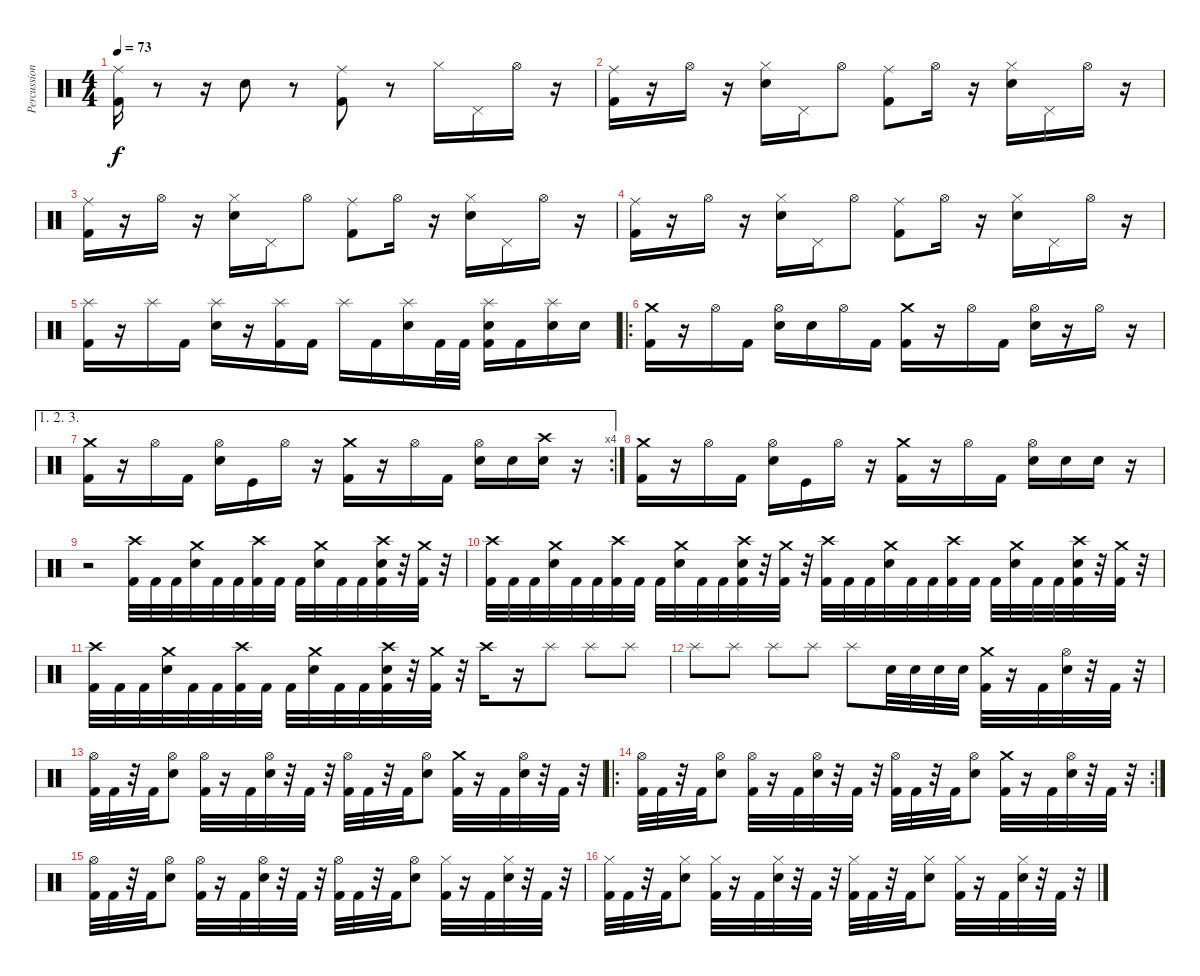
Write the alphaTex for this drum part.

\track ("Percussion" "Percussion") {instrument percussion}
\staff {score}
\articulation defaults
\ts (4 4)
\tempo 73
\clef neutral
\ks c
("Ride (middle)" "Kick (hit) 2").16{dy f} r.8 r.16 "Electric Snare (hit)".8 r.8 ("Ride (middle)" "Kick (hit) 2").8 r.8 "Hi-Hat (closed)".16 "Pedal Hi-Hat (hit)".16 "Hi-Hat (open)".16 r.16 |
("Ride (middle)" "Kick (hit) 2").16 r.16 "Hi-Hat (open)".16 r.16 ("Hi-Hat (closed)" "Electric Snare (hit)").16 "Pedal Hi-Hat (hit)".16 "Hi-Hat (open)".8 ("Ride (middle)" "Kick (hit) 2").8 "Hi-Hat (open)".16 r.16 ("Hi-Hat (closed)" "Electric Snare (hit)").16 "Pedal Hi-Hat (hit)".16 "Hi-Hat (open)".16 r.16 |
("Ride (middle)" "Kick (hit) 2").16 r.16 "Hi-Hat (open)".16 r.16 ("Hi-Hat (closed)" "Electric Snare (hit)").16 "Pedal Hi-Hat (hit)".16 "Hi-Hat (open)".8 ("Ride (middle)" "Kick (hit) 2").8 "Hi-Hat (open)".16 r.16 ("Hi-Hat (closed)" "Electric Snare (hit)").16 "Pedal Hi-Hat (hit)".16 "Hi-Hat (open)".16 r.16 |
("Ride (middle)" "Kick (hit) 2").16 r.16 "Hi-Hat (open)".16 r.16 ("Hi-Hat (closed)" "Electric Snare (hit)").16 "Pedal Hi-Hat (hit)".16 "Hi-Hat (open)".8 ("Ride (middle)" "Kick (hit) 2").8 "Hi-Hat (open)".16 r.16 ("Hi-Hat (closed)" "Electric Snare (hit)").16 "Pedal Hi-Hat (hit)".16 "Hi-Hat (open)".16 r.16 |
("Splash (hit)" "Kick (hit) 2").16 r.16 "Splash (hit)".16 "Kick (hit) 2".16 ("Splash (hit)" "Electric Snare (hit)").16 r.16 ("Splash (hit)" "Kick (hit) 2").16 "Kick (hit) 2".16 "Splash (hit)".16 "Kick (hit) 2".16 ("Splash (hit)" "Electric Snare (hit)").16 "Kick (hit) 2".32 "Kick (hit) 2".32 ("Splash (hit)" "Electric Snare (hit)" "Kick (hit) 2").16 "Kick (hit) 2".16 ("Splash (hit)" "Electric Snare (hit)").16 "Electric Snare (hit)".16 |
\ro
("Crash medium (hit)" "Kick (hit) 2").16 r.16 "Hi-Hat (open)".16 "Kick (hit) 2".16 ("Hi-Hat (open)" "Electric Snare (hit)").16 "Electric Snare (hit)".16 "Hi-Hat (open)".16 "Kick (hit) 2".16 ("Crash medium (hit)" "Kick (hit) 2").16 r.16 "Hi-Hat (open)".16 "Kick (hit) 2".16 ("Hi-Hat (open)" "Electric Snare (hit)").16 r.16 "Hi-Hat (open)".16 r.16 |
\ae (1 2 3)
\rc 4
("Crash medium (hit)" "Kick (hit) 2").16 r.16 "Hi-Hat (open)".16 "Kick (hit) 2".16 ("Hi-Hat (open)" "Electric Snare (hit)").16 "Kick (hit)".16 "Hi-Hat (open)".16 r.16 ("Crash medium (hit)" "Kick (hit) 2").16 r.16 "Hi-Hat (open)".16 "Kick (hit) 2".16 ("Hi-Hat (open)" "Electric Snare (hit)").16 "Electric Snare (hit)".16 ("Crash high (hit)" "Electric Snare (hit)").16 r.16 |
("Crash medium (hit)" "Kick (hit) 2").16 r.16 "Hi-Hat (open)".16 "Kick (hit) 2".16 ("Hi-Hat (open)" "Electric Snare (hit)").16 "Kick (hit)".16 "Hi-Hat (open)".16 r.16 ("Crash medium (hit)" "Kick (hit) 2").16 r.16 "Hi-Hat (open)".16 "Kick (hit) 2".16 ("Hi-Hat (open)" "Electric Snare (hit)").16 "Electric Snare (hit)".16 "Electric Snare (hit)".16 r.16 |
r.2 ("Crash high (hit)" "Kick (hit) 2").32 "Kick (hit) 2".32 "Kick (hit) 2".32 ("Crash medium (hit)" "Electric Snare (hit)").32 "Kick (hit) 2".32 "Kick (hit) 2".32 ("Crash high (hit)" "Kick (hit) 2").32 "Kick (hit) 2".32 "Kick (hit) 2".32 ("Crash medium (hit)" "Electric Snare (hit)").32 "Kick (hit) 2".32 "Kick (hit) 2".32 ("Crash high (hit)" "Electric Snare (hit)" "Kick (hit) 2").32 r.32 ("Crash medium (hit)" "Kick (hit) 2").32 r.32 |
("Crash high (hit)" "Kick (hit) 2").32 "Kick (hit) 2".32 "Kick (hit) 2".32 ("Crash medium (hit)" "Electric Snare (hit)").32 "Kick (hit) 2".32 "Kick (hit) 2".32 ("Crash high (hit)" "Kick (hit) 2").32 "Kick (hit) 2".32 "Kick (hit) 2".32 ("Crash medium (hit)" "Electric Snare (hit)").32 "Kick (hit) 2".32 "Kick (hit) 2".32 ("Crash high (hit)" "Electric Snare (hit)" "Kick (hit) 2").32 r.32 ("Crash medium (hit)" "Kick (hit) 2").32 r.32 ("Crash high (hit)" "Kick (hit) 2").32 "Kick (hit) 2".32 "Kick (hit) 2".32 ("Crash medium (hit)" "Electric Snare (hit)").32 "Kick (hit) 2".32 "Kick (hit) 2".32 ("Crash high (hit)" "Kick (hit) 2").32 "Kick (hit) 2".32 "Kick (hit) 2".32 ("Crash medium (hit)" "Electric Snare (hit)").32 "Kick (hit) 2".32 "Kick (hit) 2".32 ("Crash high (hit)" "Electric Snare (hit)" "Kick (hit) 2").32 r.32 ("Crash medium (hit)" "Kick (hit) 2").32 r.32 |
("Crash high (hit)" "Kick (hit) 2").32 "Kick (hit) 2".32 "Kick (hit) 2".32 ("Crash medium (hit)" "Electric Snare (hit)").32 "Kick (hit) 2".32 "Kick (hit) 2".32 ("Crash high (hit)" "Kick (hit) 2").32 "Kick (hit) 2".32 "Kick (hit) 2".32 ("Crash medium (hit)" "Electric Snare (hit)").32 "Kick (hit) 2".32 "Kick (hit) 2".32 ("Crash high (hit)" "Electric Snare (hit)" "Kick (hit) 2").32 r.32 ("Crash medium (hit)" "Kick (hit) 2").32 r.32 "Crash high (hit)".16 r.16 "Splash (hit)".8 "Splash (hit)".8 "Splash (hit)".8 |
"Splash (hit)".8 "Splash (hit)".8 "Splash (hit)".8 "Splash (hit)".8 "Splash (hit)".8 "Electric Snare (hit)".32 "Electric Snare (hit)".32 "Electric Snare (hit)".32 "Electric Snare (hit)".32 ("Crash medium (hit)" "Kick (hit) 2").32 r.16 "Kick (hit) 2".32 ("Hi-Hat (open)" "Electric Snare (hit)").32 r.32 "Kick (hit) 2".32 r.32 |
("Hi-Hat (open)" "Kick (hit) 2").32 "Kick (hit) 2".32 r.32 "Kick (hit) 2".32 ("Hi-Hat (open)" "Electric Snare (hit)").8 ("Hi-Hat (open)" "Kick (hit) 2").32 r.16 "Kick (hit) 2".32 ("Hi-Hat (open)" "Electric Snare (hit)").32 r.32 "Kick (hit) 2".32 r.32 ("Hi-Hat (open)" "Kick (hit) 2").32 "Kick (hit) 2".32 r.32 "Kick (hit) 2".32 ("Hi-Hat (open)" "Electric Snare (hit)").8 ("Crash medium (hit)" "Kick (hit) 2").32 r.16 "Kick (hit) 2".32 ("Hi-Hat (open)" "Electric Snare (hit)").32 r.32 "Kick (hit) 2".32 r.32 |
\ro
\rc 2
("Hi-Hat (open)" "Kick (hit) 2").32 "Kick (hit) 2".32 r.32 "Kick (hit) 2".32 ("Hi-Hat (open)" "Electric Snare (hit)").8 ("Hi-Hat (open)" "Kick (hit) 2").32 r.16 "Kick (hit) 2".32 ("Hi-Hat (open)" "Electric Snare (hit)").32 r.32 "Kick (hit) 2".32 r.32 ("Hi-Hat (open)" "Kick (hit) 2").32 "Kick (hit) 2".32 r.32 "Kick (hit) 2".32 ("Hi-Hat (open)" "Electric Snare (hit)").8 ("Crash medium (hit)" "Kick (hit) 2").32 r.16 "Kick (hit) 2".32 ("Hi-Hat (open)" "Electric Snare (hit)").32 r.32 "Kick (hit) 2".32 r.32 |
("Hi-Hat (open)" "Kick (hit) 2").32 "Kick (hit) 2".32 r.32 "Kick (hit) 2".32 ("Hi-Hat (open)" "Electric Snare (hit)").8 ("Hi-Hat (open)" "Kick (hit) 2").32 r.16 "Kick (hit) 2".32 ("Hi-Hat (open)" "Electric Snare (hit)").32 r.32 "Kick (hit) 2".32 r.32 ("Hi-Hat (open)" "Kick (hit) 2").32 "Kick (hit) 2".32 r.32 "Kick (hit) 2".32 ("Hi-Hat (open)" "Electric Snare (hit)").8 ("Hi-Hat (closed)" "Kick (hit) 2").32 r.16 "Kick (hit) 2".32 ("Hi-Hat (closed)" "Electric Snare (hit)").32 r.32 "Kick (hit) 2".32 r.32 |
("Hi-Hat (closed)" "Kick (hit) 2").32 "Kick (hit) 2".32 r.32 "Kick (hit) 2".32 ("Hi-Hat (closed)" "Electric Snare (hit)").8 ("Hi-Hat (closed)" "Kick (hit) 2").32 r.16 "Kick (hit) 2".32 ("Hi-Hat (closed)" "Electric Snare (hit)").32 r.32 "Kick (hit) 2".32 r.32 ("Hi-Hat (closed)" "Kick (hit) 2").32 "Kick (hit) 2".32 r.32 "Kick (hit) 2".32 ("Hi-Hat (closed)" "Electric Snare (hit)").8 ("Hi-Hat (closed)" "Kick (hit) 2").32 r.16 "Kick (hit) 2".32 ("Hi-Hat (closed)" "Electric Snare (hit)").32 r.32 "Kick (hit) 2".32 r.32
